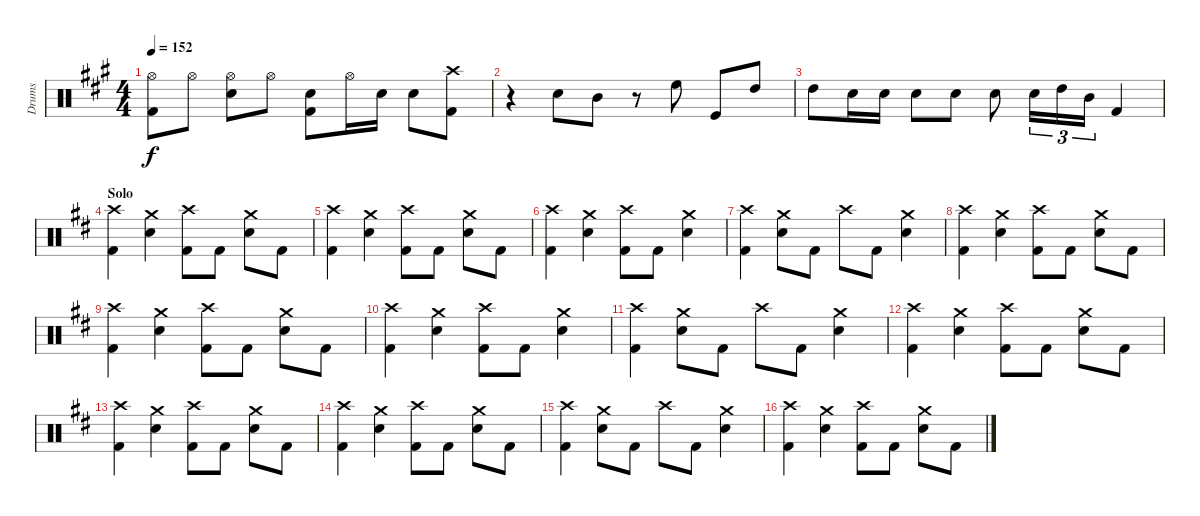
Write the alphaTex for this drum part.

\track ("Drums" "Drums") {instrument percussion}
\staff {score}
\articulation defaults
\ts (4 4)
\tempo 152
\clef neutral
\ks f#minor
("Kick (hit) 2" "Hi-Hat (open)").8{dy f} "Hi-Hat (open)".8 ("Snare (hit) 2" "Hi-Hat (open)").8 "Hi-Hat (open)".8 ("Kick (hit) 2" "Snare (hit) 2").8 "Hi-Hat (open)".16 "Snare (hit) 2".16 "Snare (hit) 2".8 ("Kick (hit) 2" "Crash high (hit)").8 |
r.4 "Snare (hit) 2".8 "Mid Tom (hit)".8 r.8 "High Floor Tom (hit)".8 "Kick (hit)".8 "High Tom (hit)".8 |
"High Tom (hit)".8 "Snare (hit) 2".16 "Snare (hit) 2".16 "Snare (hit) 2".8 "Snare (hit) 2".8 "Snare (hit) 2".8 "Snare (hit) 2".16{tu (3 2)} "High Tom (hit)".16{tu (3 2)} "Mid Tom (hit)".16{tu (3 2)} "Kick (hit) 2".4 |
\section ("" "Solo")
\ks bminor
("Kick (hit) 2" "Crash high (hit)").4 ("Snare (hit) 2" "Crash medium (hit)").4 ("Kick (hit) 2" "Crash high (hit)").8 "Kick (hit) 2".8 ("Snare (hit) 2" "Crash medium (hit)").8 "Kick (hit) 2".8 |
("Kick (hit) 2" "Crash high (hit)").4 ("Snare (hit) 2" "Crash medium (hit)").4 ("Kick (hit) 2" "Crash high (hit)").8 "Kick (hit) 2".8 ("Snare (hit) 2" "Crash medium (hit)").8 "Kick (hit) 2".8 |
("Kick (hit) 2" "Crash high (hit)").4 ("Snare (hit) 2" "Crash medium (hit)").4 ("Kick (hit) 2" "Crash high (hit)").8 "Kick (hit) 2".8 ("Snare (hit) 2" "Crash medium (hit)").4 |
("Kick (hit) 2" "Crash high (hit)").4 ("Snare (hit) 2" "Crash medium (hit)").8 "Kick (hit) 2".8 "Crash high (hit)".8 "Kick (hit) 2".8 ("Snare (hit) 2" "Crash medium (hit)").4 |
("Kick (hit) 2" "Crash high (hit)").4 ("Snare (hit) 2" "Crash medium (hit)").4 ("Kick (hit) 2" "Crash high (hit)").8 "Kick (hit) 2".8 ("Snare (hit) 2" "Crash medium (hit)").8 "Kick (hit) 2".8 |
("Kick (hit) 2" "Crash high (hit)").4 ("Snare (hit) 2" "Crash medium (hit)").4 ("Kick (hit) 2" "Crash high (hit)").8 "Kick (hit) 2".8 ("Snare (hit) 2" "Crash medium (hit)").8 "Kick (hit) 2".8 |
("Kick (hit) 2" "Crash high (hit)").4 ("Snare (hit) 2" "Crash medium (hit)").4 ("Kick (hit) 2" "Crash high (hit)").8 "Kick (hit) 2".8 ("Snare (hit) 2" "Crash medium (hit)").4 |
("Kick (hit) 2" "Crash high (hit)").4 ("Snare (hit) 2" "Crash medium (hit)").8 "Kick (hit) 2".8 "Crash high (hit)".8 "Kick (hit) 2".8 ("Snare (hit) 2" "Crash medium (hit)").4 |
("Kick (hit) 2" "Crash high (hit)").4 ("Snare (hit) 2" "Crash medium (hit)").4 ("Kick (hit) 2" "Crash high (hit)").8 "Kick (hit) 2".8 ("Snare (hit) 2" "Crash medium (hit)").8 "Kick (hit) 2".8 |
("Kick (hit) 2" "Crash high (hit)").4 ("Snare (hit) 2" "Crash medium (hit)").4 ("Kick (hit) 2" "Crash high (hit)").8 "Kick (hit) 2".8 ("Snare (hit) 2" "Crash medium (hit)").8 "Kick (hit) 2".8 |
("Kick (hit) 2" "Crash high (hit)").4 ("Snare (hit) 2" "Crash medium (hit)").4 ("Kick (hit) 2" "Crash high (hit)").8 "Kick (hit) 2".8 ("Snare (hit) 2" "Crash medium (hit)").8 "Kick (hit) 2".8 |
("Kick (hit) 2" "Crash high (hit)").4 ("Snare (hit) 2" "Crash medium (hit)").8 "Kick (hit) 2".8 "Crash high (hit)".8 "Kick (hit) 2".8 ("Snare (hit) 2" "Crash medium (hit)").4 |
("Kick (hit) 2" "Crash high (hit)").4 ("Snare (hit) 2" "Crash medium (hit)").4 ("Kick (hit) 2" "Crash high (hit)").8 "Kick (hit) 2".8 ("Snare (hit) 2" "Crash medium (hit)").8 "Kick (hit) 2".8
